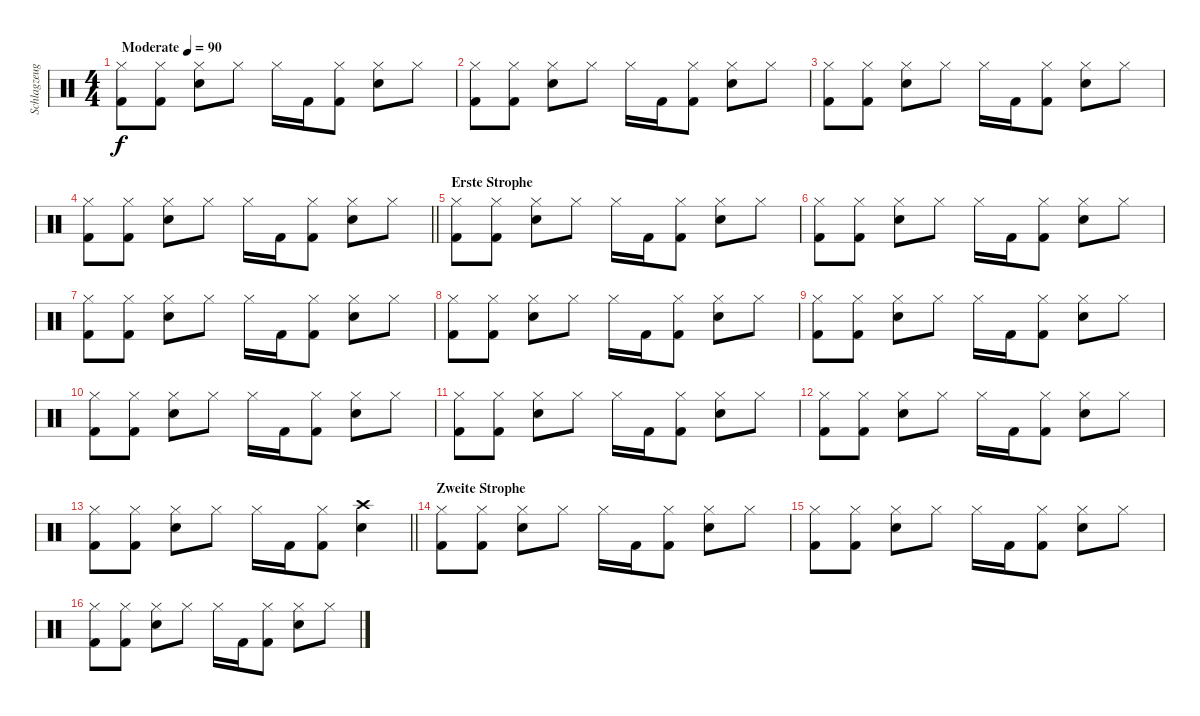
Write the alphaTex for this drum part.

\track ("Schlagzeug" "Schlagzeug") {instrument percussion}
\staff {score}
\articulation defaults
\ts (4 4)
\tempo (90 "Moderate")
\clef neutral
\ks c
("Hi-Hat (closed)" "Kick (hit) 2").8{dy f} ("Hi-Hat (closed)" "Kick (hit) 2").8 ("Hi-Hat (closed)" "Snare (hit) 2").8 "Hi-Hat (closed)".8 "Hi-Hat (closed)".16 "Kick (hit) 2".16 ("Hi-Hat (closed)" "Kick (hit) 2").8 ("Hi-Hat (closed)" "Snare (hit) 2").8 "Hi-Hat (closed)".8 |
("Hi-Hat (closed)" "Kick (hit) 2").8 ("Hi-Hat (closed)" "Kick (hit) 2").8 ("Hi-Hat (closed)" "Snare (hit) 2").8 "Hi-Hat (closed)".8 "Hi-Hat (closed)".16 "Kick (hit) 2".16 ("Hi-Hat (closed)" "Kick (hit) 2").8 ("Hi-Hat (closed)" "Snare (hit) 2").8 "Hi-Hat (closed)".8 |
("Hi-Hat (closed)" "Kick (hit) 2").8 ("Hi-Hat (closed)" "Kick (hit) 2").8 ("Hi-Hat (closed)" "Snare (hit) 2").8 "Hi-Hat (closed)".8 "Hi-Hat (closed)".16 "Kick (hit) 2".16 ("Hi-Hat (closed)" "Kick (hit) 2").8 ("Hi-Hat (closed)" "Snare (hit) 2").8 "Hi-Hat (closed)".8 |
\barLineRight lightlight
("Hi-Hat (closed)" "Kick (hit) 2").8 ("Hi-Hat (closed)" "Kick (hit) 2").8 ("Hi-Hat (closed)" "Snare (hit) 2").8 "Hi-Hat (closed)".8 "Hi-Hat (closed)".16 "Kick (hit) 2".16 ("Hi-Hat (closed)" "Kick (hit) 2").8 ("Hi-Hat (closed)" "Snare (hit) 2").8 "Hi-Hat (closed)".8 |
\section ("" "Erste Strophe")
("Hi-Hat (closed)" "Kick (hit) 2").8 ("Hi-Hat (closed)" "Kick (hit) 2").8 ("Hi-Hat (closed)" "Snare (hit) 2").8 "Hi-Hat (closed)".8 "Hi-Hat (closed)".16 "Kick (hit) 2".16 ("Hi-Hat (closed)" "Kick (hit) 2").8 ("Hi-Hat (closed)" "Snare (hit) 2").8 "Hi-Hat (closed)".8 |
("Hi-Hat (closed)" "Kick (hit) 2").8 ("Hi-Hat (closed)" "Kick (hit) 2").8 ("Hi-Hat (closed)" "Snare (hit) 2").8 "Hi-Hat (closed)".8 "Hi-Hat (closed)".16 "Kick (hit) 2".16 ("Hi-Hat (closed)" "Kick (hit) 2").8 ("Hi-Hat (closed)" "Snare (hit) 2").8 "Hi-Hat (closed)".8 |
("Hi-Hat (closed)" "Kick (hit) 2").8 ("Hi-Hat (closed)" "Kick (hit) 2").8 ("Hi-Hat (closed)" "Snare (hit) 2").8 "Hi-Hat (closed)".8 "Hi-Hat (closed)".16 "Kick (hit) 2".16 ("Hi-Hat (closed)" "Kick (hit) 2").8 ("Hi-Hat (closed)" "Snare (hit) 2").8 "Hi-Hat (closed)".8 |
("Hi-Hat (closed)" "Kick (hit) 2").8 ("Hi-Hat (closed)" "Kick (hit) 2").8 ("Hi-Hat (closed)" "Snare (hit) 2").8 "Hi-Hat (closed)".8 "Hi-Hat (closed)".16 "Kick (hit) 2".16 ("Hi-Hat (closed)" "Kick (hit) 2").8 ("Hi-Hat (closed)" "Snare (hit) 2").8 "Hi-Hat (closed)".8 |
("Hi-Hat (closed)" "Kick (hit) 2").8 ("Hi-Hat (closed)" "Kick (hit) 2").8 ("Hi-Hat (closed)" "Snare (hit) 2").8 "Hi-Hat (closed)".8 "Hi-Hat (closed)".16 "Kick (hit) 2".16 ("Hi-Hat (closed)" "Kick (hit) 2").8 ("Hi-Hat (closed)" "Snare (hit) 2").8 "Hi-Hat (closed)".8 |
("Hi-Hat (closed)" "Kick (hit) 2").8 ("Hi-Hat (closed)" "Kick (hit) 2").8 ("Hi-Hat (closed)" "Snare (hit) 2").8 "Hi-Hat (closed)".8 "Hi-Hat (closed)".16 "Kick (hit) 2".16 ("Hi-Hat (closed)" "Kick (hit) 2").8 ("Hi-Hat (closed)" "Snare (hit) 2").8 "Hi-Hat (closed)".8 |
("Hi-Hat (closed)" "Kick (hit) 2").8 ("Hi-Hat (closed)" "Kick (hit) 2").8 ("Hi-Hat (closed)" "Snare (hit) 2").8 "Hi-Hat (closed)".8 "Hi-Hat (closed)".16 "Kick (hit) 2".16 ("Hi-Hat (closed)" "Kick (hit) 2").8 ("Hi-Hat (closed)" "Snare (hit) 2").8 "Hi-Hat (closed)".8 |
("Hi-Hat (closed)" "Kick (hit) 2").8 ("Hi-Hat (closed)" "Kick (hit) 2").8 ("Hi-Hat (closed)" "Snare (hit) 2").8 "Hi-Hat (closed)".8 "Hi-Hat (closed)".16 "Kick (hit) 2".16 ("Hi-Hat (closed)" "Kick (hit) 2").8 ("Hi-Hat (closed)" "Snare (hit) 2").8 "Hi-Hat (closed)".8 |
\barLineRight lightlight
("Hi-Hat (closed)" "Kick (hit) 2").8 ("Hi-Hat (closed)" "Kick (hit) 2").8 ("Hi-Hat (closed)" "Snare (hit) 2").8 "Hi-Hat (closed)".8 "Hi-Hat (closed)".16 "Kick (hit) 2".16 ("Hi-Hat (closed)" "Kick (hit) 2").8 ("Crash high (hit)" "Snare (hit) 2").4 |
\section ("" "Zweite Strophe")
("Hi-Hat (closed)" "Kick (hit) 2").8 ("Hi-Hat (closed)" "Kick (hit) 2").8 ("Hi-Hat (closed)" "Snare (hit) 2").8 "Hi-Hat (closed)".8 "Hi-Hat (closed)".16 "Kick (hit) 2".16 ("Hi-Hat (closed)" "Kick (hit) 2").8 ("Hi-Hat (closed)" "Snare (hit) 2").8 "Hi-Hat (closed)".8 |
("Hi-Hat (closed)" "Kick (hit) 2").8 ("Hi-Hat (closed)" "Kick (hit) 2").8 ("Hi-Hat (closed)" "Snare (hit) 2").8 "Hi-Hat (closed)".8 "Hi-Hat (closed)".16 "Kick (hit) 2".16 ("Hi-Hat (closed)" "Kick (hit) 2").8 ("Hi-Hat (closed)" "Snare (hit) 2").8 "Hi-Hat (closed)".8 |
("Hi-Hat (closed)" "Kick (hit) 2").8 ("Hi-Hat (closed)" "Kick (hit) 2").8 ("Hi-Hat (closed)" "Snare (hit) 2").8 "Hi-Hat (closed)".8 "Hi-Hat (closed)".16 "Kick (hit) 2".16 ("Hi-Hat (closed)" "Kick (hit) 2").8 ("Hi-Hat (closed)" "Snare (hit) 2").8 "Hi-Hat (closed)".8
